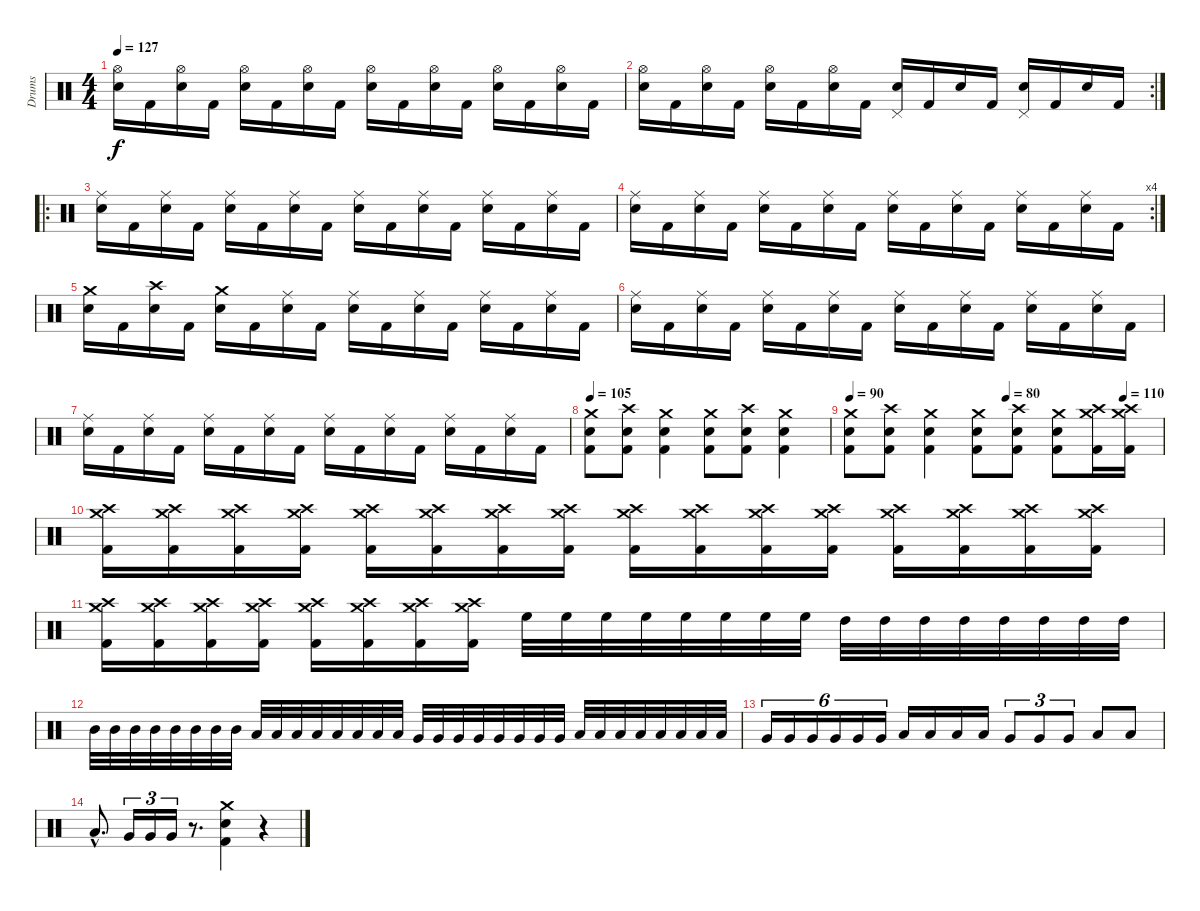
\track ("Drums" "Drums") {instrument percussion}
\staff {score}
\articulation defaults
\ts (4 4)
\tempo 127
\clef neutral
\ks c
("Hi-Hat (open)" "Snare (hit) 2").16{dy f} "Kick (hit) 2".16 ("Hi-Hat (open)" "Snare (hit) 2").16 "Kick (hit) 2".16 ("Hi-Hat (open)" "Snare (hit) 2").16 "Kick (hit) 2".16 ("Hi-Hat (open)" "Snare (hit) 2").16 "Kick (hit) 2".16 ("Hi-Hat (open)" "Snare (hit) 2").16 "Kick (hit) 2".16 ("Hi-Hat (open)" "Snare (hit) 2").16 "Kick (hit) 2".16 ("Hi-Hat (open)" "Snare (hit) 2").16 "Kick (hit) 2".16 ("Hi-Hat (open)" "Snare (hit) 2").16 "Kick (hit) 2".16 |
\rc 2
("Hi-Hat (open)" "Snare (hit) 2").16 "Kick (hit) 2".16 ("Hi-Hat (open)" "Snare (hit) 2").16 "Kick (hit) 2".16 ("Hi-Hat (open)" "Snare (hit) 2").16 "Kick (hit) 2".16 ("Hi-Hat (open)" "Snare (hit) 2").16 "Kick (hit) 2".16 ("Pedal Hi-Hat (hit)" "Snare (hit) 2").16 "Kick (hit) 2".16 "Snare (hit) 2".16 "Kick (hit) 2".16 ("Pedal Hi-Hat (hit)" "Snare (hit) 2").16 "Kick (hit) 2".16 "Snare (hit) 2".16 "Kick (hit) 2".16 |
\ro
("Ride (middle)" "Snare (hit) 2").16 "Kick (hit) 2".16 ("Ride (middle)" "Snare (hit) 2").16 "Kick (hit) 2".16 ("Ride (middle)" "Snare (hit) 2").16 "Kick (hit) 2".16 ("Ride (middle)" "Snare (hit) 2").16 "Kick (hit) 2".16 ("Ride (middle)" "Snare (hit) 2").16 "Kick (hit) 2".16 ("Ride (middle)" "Snare (hit) 2").16 "Kick (hit) 2".16 ("Ride (middle)" "Snare (hit) 2").16 "Kick (hit) 2".16 ("Ride (middle)" "Snare (hit) 2").16 "Kick (hit) 2".16 |
\rc 4
("Ride (middle)" "Snare (hit) 2").16 "Kick (hit) 2".16 ("Ride (middle)" "Snare (hit) 2").16 "Kick (hit) 2".16 ("Ride (middle)" "Snare (hit) 2").16 "Kick (hit) 2".16 ("Ride (middle)" "Snare (hit) 2").16 "Kick (hit) 2".16 ("Ride (middle)" "Snare (hit) 2").16 "Kick (hit) 2".16 ("Ride (middle)" "Snare (hit) 2").16 "Kick (hit) 2".16 ("Ride (middle)" "Snare (hit) 2").16 "Kick (hit) 2".16 ("Ride (middle)" "Snare (hit) 2").16 "Kick (hit) 2".16 |
("Crash medium (hit)" "Snare (hit) 2").16 "Kick (hit) 2".16 ("Crash high (hit)" "Snare (hit) 2").16 "Kick (hit) 2".16 ("Crash medium (hit)" "Snare (hit) 2").16 "Kick (hit) 2".16 ("Ride (middle)" "Snare (hit) 2").16 "Kick (hit) 2".16 ("Ride (middle)" "Snare (hit) 2").16 "Kick (hit) 2".16 ("Ride (middle)" "Snare (hit) 2").16 "Kick (hit) 2".16 ("Ride (middle)" "Snare (hit) 2").16 "Kick (hit) 2".16 ("Ride (middle)" "Snare (hit) 2").16 "Kick (hit) 2".16 |
("Ride (middle)" "Snare (hit) 2").16 "Kick (hit) 2".16 ("Ride (middle)" "Snare (hit) 2").16 "Kick (hit) 2".16 ("Ride (middle)" "Snare (hit) 2").16 "Kick (hit) 2".16 ("Ride (middle)" "Snare (hit) 2").16 "Kick (hit) 2".16 ("Ride (middle)" "Snare (hit) 2").16 "Kick (hit) 2".16 ("Ride (middle)" "Snare (hit) 2").16 "Kick (hit) 2".16 ("Ride (middle)" "Snare (hit) 2").16 "Kick (hit) 2".16 ("Ride (middle)" "Snare (hit) 2").16 "Kick (hit) 2".16 |
("Ride (middle)" "Snare (hit) 2").16 "Kick (hit) 2".16 ("Ride (middle)" "Snare (hit) 2").16 "Kick (hit) 2".16 ("Ride (middle)" "Snare (hit) 2").16 "Kick (hit) 2".16 ("Ride (middle)" "Snare (hit) 2").16 "Kick (hit) 2".16 ("Ride (middle)" "Snare (hit) 2").16 "Kick (hit) 2".16 ("Ride (middle)" "Snare (hit) 2").16 "Kick (hit) 2".16 ("Ride (middle)" "Snare (hit) 2").16 "Kick (hit) 2".16 ("Ride (middle)" "Snare (hit) 2").16 "Kick (hit) 2".16 |
\tempo 105
("Crash medium (hit)" "Snare (hit) 2" "Kick (hit) 2").8 ("Crash high (hit)" "Snare (hit) 2" "Kick (hit) 2").8 ("Crash medium (hit)" "Snare (hit) 2" "Kick (hit) 2").4 ("Crash medium (hit)" "Snare (hit) 2" "Kick (hit) 2").8 ("Crash high (hit)" "Snare (hit) 2" "Kick (hit) 2").8 ("Crash medium (hit)" "Snare (hit) 2" "Kick (hit) 2").4 |
\tempo 90
\tempo (80 0.5)
\tempo (115 0.875)
\tempo (110 0.875)
("Crash medium (hit)" "Snare (hit) 2" "Kick (hit) 2").8 ("Crash high (hit)" "Snare (hit) 2" "Kick (hit) 2").8 ("Crash medium (hit)" "Snare (hit) 2" "Kick (hit) 2").4 ("Crash medium (hit)" "Snare (hit) 2" "Kick (hit) 2").8 ("Crash high (hit)" "Snare (hit) 2" "Kick (hit) 2").8 ("Crash medium (hit)" "Snare (hit) 2" "Kick (hit) 2").8 ("Crash medium (hit)" "Crash high (hit)" "Kick (hit) 2").16 ("Crash high (hit)" "Crash medium (hit)" "Kick (hit) 2").16 |
("Crash medium (hit)" "Crash high (hit)" "Kick (hit) 2").16 ("Crash medium (hit)" "Crash high (hit)" "Kick (hit) 2").16 ("Crash medium (hit)" "Crash high (hit)" "Kick (hit) 2").16 ("Crash medium (hit)" "Crash high (hit)" "Kick (hit) 2").16 ("Crash medium (hit)" "Crash high (hit)" "Kick (hit) 2").16 ("Crash medium (hit)" "Crash high (hit)" "Kick (hit) 2").16 ("Crash medium (hit)" "Crash high (hit)" "Kick (hit) 2").16 ("Crash medium (hit)" "Crash high (hit)" "Kick (hit) 2").16 ("Crash medium (hit)" "Crash high (hit)" "Kick (hit) 2").16 ("Crash medium (hit)" "Crash high (hit)" "Kick (hit) 2").16 ("Crash medium (hit)" "Crash high (hit)" "Kick (hit) 2").16 ("Crash medium (hit)" "Crash high (hit)" "Kick (hit) 2").16 ("Crash medium (hit)" "Crash high (hit)" "Kick (hit) 2").16 ("Crash medium (hit)" "Crash high (hit)" "Kick (hit) 2").16 ("Crash medium (hit)" "Crash high (hit)" "Kick (hit) 2").16 ("Crash medium (hit)" "Crash high (hit)" "Kick (hit) 2").16 |
("Crash medium (hit)" "Crash high (hit)" "Kick (hit) 2").16 ("Crash medium (hit)" "Crash high (hit)" "Kick (hit) 2").16 ("Crash medium (hit)" "Crash high (hit)" "Kick (hit) 2").16 ("Crash medium (hit)" "Crash high (hit)" "Kick (hit) 2").16 ("Crash medium (hit)" "Crash high (hit)" "Kick (hit) 2").16 ("Crash medium (hit)" "Crash high (hit)" "Kick (hit) 2").16 ("Crash medium (hit)" "Crash high (hit)" "Kick (hit) 2").16 ("Crash medium (hit)" "Crash high (hit)" "Kick (hit) 2").16 "High Floor Tom (hit)".32 "High Floor Tom (hit)".32 "High Floor Tom (hit)".32 "High Floor Tom (hit)".32 "High Floor Tom (hit)".32 "High Floor Tom (hit)".32 "High Floor Tom (hit)".32 "High Floor Tom (hit)".32 "High Tom (hit)".32 "High Tom (hit)".32 "High Tom (hit)".32 "High Tom (hit)".32 "High Tom (hit)".32 "High Tom (hit)".32 "High Tom (hit)".32 "High Tom (hit)".32 |
"Mid Tom (hit)".32 "Mid Tom (hit)".32 "Mid Tom (hit)".32 "Mid Tom (hit)".32 "Mid Tom (hit)".32 "Mid Tom (hit)".32 "Mid Tom (hit)".32 "Mid Tom (hit)".32 "Low Tom (hit)".32 "Low Tom (hit)".32 "Low Tom (hit)".32 "Low Tom (hit)".32 "Low Tom (hit)".32 "Low Tom (hit)".32 "Low Tom (hit)".32 "Low Tom (hit)".32 "Very Low Tom (hit)".32 "Very Low Tom (hit)".32 "Very Low Tom (hit)".32 "Very Low Tom (hit)".32 "Very Low Tom (hit)".32 "Very Low Tom (hit)".32 "Very Low Tom (hit)".32 "Very Low Tom (hit)".32 "Low Floor Tom (hit)".32 "Low Floor Tom (hit)".32 "Low Floor Tom (hit)".32 "Low Floor Tom (hit)".32 "Low Floor Tom (hit)".32 "Low Floor Tom (hit)".32 "Low Floor Tom (hit)".32 "Low Floor Tom (hit)".32 |
"Very Low Tom (hit)".16{tu (6 4)} "Very Low Tom (hit)".16{tu (6 4)} "Very Low Tom (hit)".16{tu (6 4)} "Very Low Tom (hit)".16{tu (6 4)} "Very Low Tom (hit)".16{tu (6 4)} "Very Low Tom (hit)".16{tu (6 4)} "Low Tom (hit)".16 "Low Tom (hit)".16 "Low Tom (hit)".16 "Low Tom (hit)".16 "Very Low Tom (hit)".8{tu (3 2)} "Very Low Tom (hit)".8{tu (3 2)} "Very Low Tom (hit)".8{tu (3 2)} "Low Floor Tom (hit)".8 "Low Floor Tom (hit)".8 |
"Low Floor Tom (hit)"{hac}.8{d} "Very Low Tom (hit)".16{tu (3 2)} "Very Low Tom (hit)".16{tu (3 2)} "Very Low Tom (hit)".16{tu (3 2)} r.8{d} ("Crash medium (hit)" "Kick (hit) 2" "Snare (hit) 2").4 r.4
